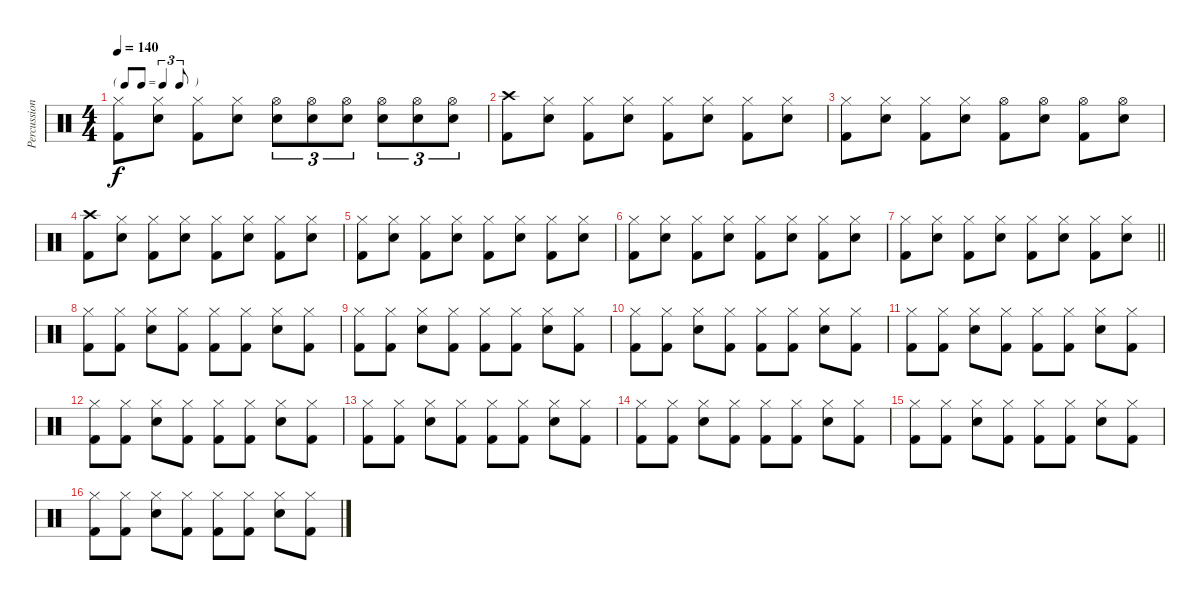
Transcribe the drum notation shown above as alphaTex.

\track ("Percussion" "Percussion") {instrument percussion}
\staff {score}
\articulation defaults
\ts (4 4)
\tf triplet8th
\tempo 140
\clef neutral
\ks c
("Hi-Hat (closed)" "Kick (hit) 2").8{dy f} ("Hi-Hat (closed)" "Snare (hit) 2").8 ("Hi-Hat (closed)" "Kick (hit) 2").8 ("Hi-Hat (closed)" "Snare (hit) 2").8 ("Hi-Hat (open)" "Snare (hit) 2").8{tu (3 2)} ("Hi-Hat (open)" "Snare (hit) 2").8{tu (3 2)} ("Hi-Hat (open)" "Snare (hit) 2").8{tu (3 2)} ("Hi-Hat (open)" "Snare (hit) 2").8{tu (3 2)} ("Hi-Hat (open)" "Snare (hit) 2").8{tu (3 2)} ("Hi-Hat (open)" "Snare (hit) 2").8{tu (3 2)} |
("Crash high (hit)" "Kick (hit) 2").8 ("Hi-Hat (closed)" "Snare (hit) 2").8 ("Hi-Hat (closed)" "Kick (hit) 2").8 ("Hi-Hat (closed)" "Snare (hit) 2").8 ("Hi-Hat (closed)" "Kick (hit) 2").8 ("Hi-Hat (closed)" "Snare (hit) 2").8 ("Hi-Hat (closed)" "Kick (hit) 2").8 ("Hi-Hat (closed)" "Snare (hit) 2").8 |
("Hi-Hat (closed)" "Kick (hit) 2").8 ("Hi-Hat (closed)" "Snare (hit) 2").8 ("Hi-Hat (closed)" "Kick (hit) 2").8 ("Hi-Hat (closed)" "Snare (hit) 2").8 ("Hi-Hat (open)" "Kick (hit) 2").8 ("Hi-Hat (open)" "Snare (hit) 2").8 ("Hi-Hat (open)" "Kick (hit) 2").8 ("Hi-Hat (open)" "Snare (hit) 2").8 |
("Crash high (hit)" "Kick (hit) 2").8 ("Hi-Hat (closed)" "Snare (hit) 2").8 ("Hi-Hat (closed)" "Kick (hit) 2").8 ("Hi-Hat (closed)" "Snare (hit) 2").8 ("Hi-Hat (closed)" "Kick (hit) 2").8 ("Hi-Hat (closed)" "Snare (hit) 2").8 ("Hi-Hat (closed)" "Kick (hit) 2").8 ("Hi-Hat (closed)" "Snare (hit) 2").8 |
("Hi-Hat (closed)" "Kick (hit) 2").8 ("Hi-Hat (closed)" "Snare (hit) 2").8 ("Hi-Hat (closed)" "Kick (hit) 2").8 ("Hi-Hat (closed)" "Snare (hit) 2").8 ("Hi-Hat (closed)" "Kick (hit) 2").8 ("Hi-Hat (closed)" "Snare (hit) 2").8 ("Hi-Hat (closed)" "Kick (hit) 2").8 ("Hi-Hat (closed)" "Snare (hit) 2").8 |
("Hi-Hat (closed)" "Kick (hit) 2").8 ("Hi-Hat (closed)" "Snare (hit) 2").8 ("Hi-Hat (closed)" "Kick (hit) 2").8 ("Hi-Hat (closed)" "Snare (hit) 2").8 ("Hi-Hat (closed)" "Kick (hit) 2").8 ("Hi-Hat (closed)" "Snare (hit) 2").8 ("Hi-Hat (closed)" "Kick (hit) 2").8 ("Hi-Hat (closed)" "Snare (hit) 2").8 |
\barLineRight lightlight
("Hi-Hat (closed)" "Kick (hit) 2").8 ("Hi-Hat (closed)" "Snare (hit) 2").8 ("Hi-Hat (closed)" "Kick (hit) 2").8 ("Hi-Hat (closed)" "Snare (hit) 2").8 ("Hi-Hat (closed)" "Kick (hit) 2").8 ("Hi-Hat (closed)" "Snare (hit) 2").8 ("Hi-Hat (closed)" "Kick (hit) 2").8 ("Hi-Hat (closed)" "Snare (hit) 2").8 |
("Hi-Hat (closed)" "Kick (hit) 2").8 ("Hi-Hat (closed)" "Kick (hit) 2").8 ("Hi-Hat (closed)" "Snare (hit) 2").8 ("Hi-Hat (closed)" "Kick (hit) 2").8 ("Hi-Hat (closed)" "Kick (hit) 2").8 ("Hi-Hat (closed)" "Kick (hit) 2").8 ("Hi-Hat (closed)" "Snare (hit) 2").8 ("Hi-Hat (closed)" "Kick (hit) 2").8 |
("Hi-Hat (closed)" "Kick (hit) 2").8 ("Hi-Hat (closed)" "Kick (hit) 2").8 ("Hi-Hat (closed)" "Snare (hit) 2").8 ("Hi-Hat (closed)" "Kick (hit) 2").8 ("Hi-Hat (closed)" "Kick (hit) 2").8 ("Hi-Hat (closed)" "Kick (hit) 2").8 ("Hi-Hat (closed)" "Snare (hit) 2").8 ("Hi-Hat (closed)" "Kick (hit) 2").8 |
("Hi-Hat (closed)" "Kick (hit) 2").8 ("Hi-Hat (closed)" "Kick (hit) 2").8 ("Hi-Hat (closed)" "Snare (hit) 2").8 ("Hi-Hat (closed)" "Kick (hit) 2").8 ("Hi-Hat (closed)" "Kick (hit) 2").8 ("Hi-Hat (closed)" "Kick (hit) 2").8 ("Hi-Hat (closed)" "Snare (hit) 2").8 ("Hi-Hat (closed)" "Kick (hit) 2").8 |
("Hi-Hat (closed)" "Kick (hit) 2").8 ("Hi-Hat (closed)" "Kick (hit) 2").8 ("Hi-Hat (closed)" "Snare (hit) 2").8 ("Hi-Hat (closed)" "Kick (hit) 2").8 ("Hi-Hat (closed)" "Kick (hit) 2").8 ("Hi-Hat (closed)" "Kick (hit) 2").8 ("Hi-Hat (closed)" "Snare (hit) 2").8 ("Hi-Hat (closed)" "Kick (hit) 2").8 |
("Hi-Hat (closed)" "Kick (hit) 2").8 ("Hi-Hat (closed)" "Kick (hit) 2").8 ("Hi-Hat (closed)" "Snare (hit) 2").8 ("Hi-Hat (closed)" "Kick (hit) 2").8 ("Hi-Hat (closed)" "Kick (hit) 2").8 ("Hi-Hat (closed)" "Kick (hit) 2").8 ("Hi-Hat (closed)" "Snare (hit) 2").8 ("Hi-Hat (closed)" "Kick (hit) 2").8 |
("Hi-Hat (closed)" "Kick (hit) 2").8 ("Hi-Hat (closed)" "Kick (hit) 2").8 ("Hi-Hat (closed)" "Snare (hit) 2").8 ("Hi-Hat (closed)" "Kick (hit) 2").8 ("Hi-Hat (closed)" "Kick (hit) 2").8 ("Hi-Hat (closed)" "Kick (hit) 2").8 ("Hi-Hat (closed)" "Snare (hit) 2").8 ("Hi-Hat (closed)" "Kick (hit) 2").8 |
("Hi-Hat (closed)" "Kick (hit) 2").8 ("Hi-Hat (closed)" "Kick (hit) 2").8 ("Hi-Hat (closed)" "Snare (hit) 2").8 ("Hi-Hat (closed)" "Kick (hit) 2").8 ("Hi-Hat (closed)" "Kick (hit) 2").8 ("Hi-Hat (closed)" "Kick (hit) 2").8 ("Hi-Hat (closed)" "Snare (hit) 2").8 ("Hi-Hat (closed)" "Kick (hit) 2").8 |
("Hi-Hat (closed)" "Kick (hit) 2").8 ("Hi-Hat (closed)" "Kick (hit) 2").8 ("Hi-Hat (closed)" "Snare (hit) 2").8 ("Hi-Hat (closed)" "Kick (hit) 2").8 ("Hi-Hat (closed)" "Kick (hit) 2").8 ("Hi-Hat (closed)" "Kick (hit) 2").8 ("Hi-Hat (closed)" "Snare (hit) 2").8 ("Hi-Hat (closed)" "Kick (hit) 2").8 |
("Hi-Hat (closed)" "Kick (hit) 2").8 ("Hi-Hat (closed)" "Kick (hit) 2").8 ("Hi-Hat (closed)" "Snare (hit) 2").8 ("Hi-Hat (closed)" "Kick (hit) 2").8 ("Hi-Hat (closed)" "Kick (hit) 2").8 ("Hi-Hat (closed)" "Kick (hit) 2").8 ("Hi-Hat (closed)" "Snare (hit) 2").8 ("Hi-Hat (closed)" "Kick (hit) 2").8
